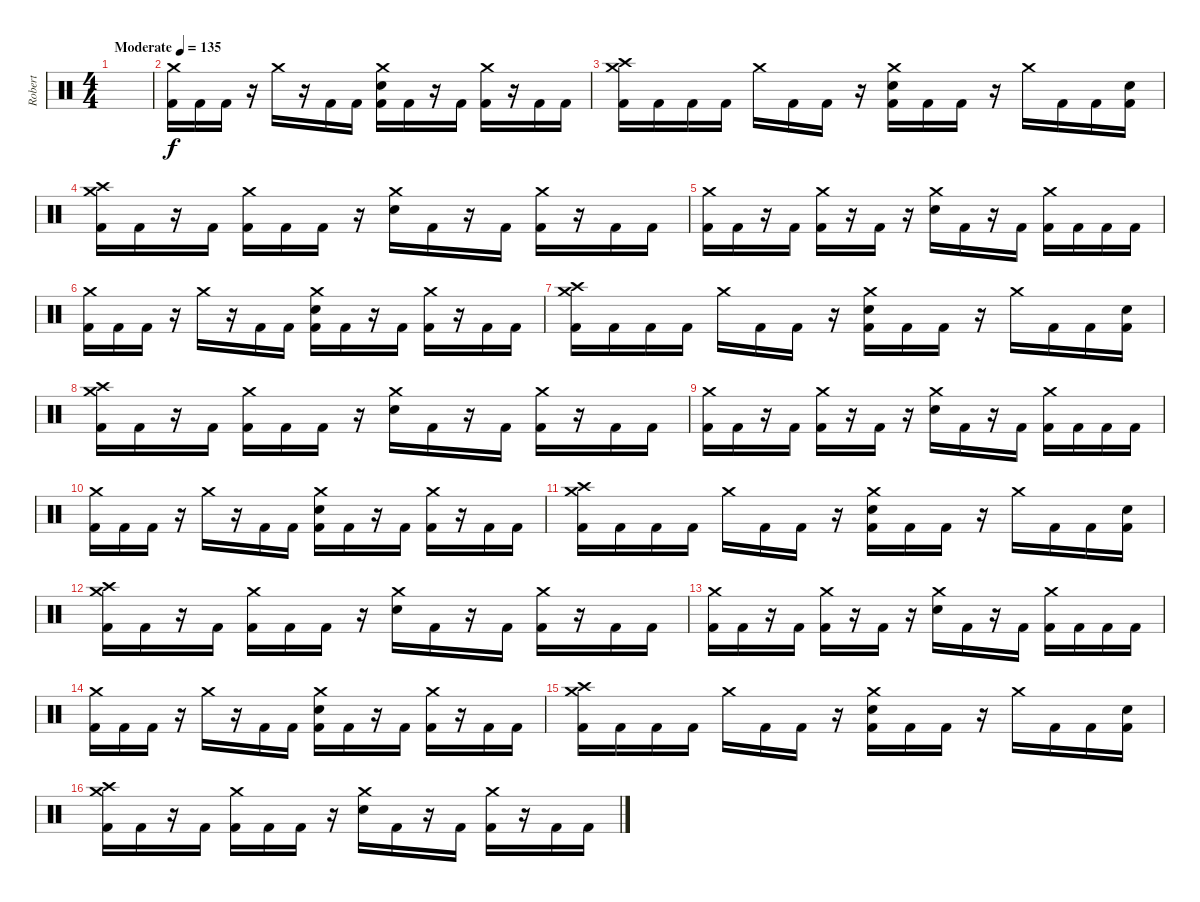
\track ("Robert" "Robert") {instrument percussion}
\staff {score}
\articulation defaults
\ts (4 4)
\tempo (135 "Moderate")
\clef neutral
\ks c
|
("Crash medium (hit)" "Kick (hit) 2").16{volume 7} "Kick (hit) 2".16 "Kick (hit) 2".16 r.16 "Crash medium (hit)".16 r.16 "Kick (hit) 2".16 "Kick (hit) 2".16 ("Crash medium (hit)" "Electric Snare (hit)" "Kick (hit) 2").16 "Kick (hit) 2".16 r.16 "Kick (hit) 2".16 ("Crash medium (hit)" "Kick (hit) 2").16 r.16 "Kick (hit) 2".16 "Kick (hit) 2".16 |
("Crash medium (hit)" "Crash high (hit)" "Kick (hit) 2").16 "Kick (hit) 2".16 "Kick (hit) 2".16 "Kick (hit) 2".16 "Crash medium (hit)".16 "Kick (hit) 2".16 "Kick (hit) 2".16 r.16 ("Crash medium (hit)" "Kick (hit) 2" "Electric Snare (hit)").16 "Kick (hit) 2".16 "Kick (hit) 2".16 r.16 "Crash medium (hit)".16 "Kick (hit) 2".16 "Kick (hit) 2".16 ("Kick (hit) 2" "Electric Snare (hit)").16 |
("Crash high (hit)" "Crash medium (hit)" "Kick (hit) 2").16 "Kick (hit) 2".16 r.16 "Kick (hit) 2".16 ("Crash medium (hit)" "Kick (hit) 2").16 "Kick (hit) 2".16 "Kick (hit) 2".16 r.16 ("Crash medium (hit)" "Electric Snare (hit)").16 "Kick (hit) 2".16 r.16 "Kick (hit) 2".16 ("Crash medium (hit)" "Kick (hit) 2").16 r.16 "Kick (hit) 2".16 "Kick (hit) 2".16 |
("Crash medium (hit)" "Kick (hit) 2").16 "Kick (hit) 2".16 r.16 "Kick (hit) 2".16 ("Crash medium (hit)" "Kick (hit) 2").16 r.16 "Kick (hit) 2".16 r.16 ("Crash medium (hit)" "Electric Snare (hit)").16 "Kick (hit) 2".16 r.16 "Kick (hit) 2".16 ("Crash medium (hit)" "Kick (hit) 2").16 "Kick (hit) 2".16 "Kick (hit) 2".16 "Kick (hit) 2".16 |
("Crash medium (hit)" "Kick (hit) 2").16{volume 16} "Kick (hit) 2".16 "Kick (hit) 2".16 r.16 "Crash medium (hit)".16 r.16 "Kick (hit) 2".16 "Kick (hit) 2".16 ("Crash medium (hit)" "Electric Snare (hit)" "Kick (hit) 2").16 "Kick (hit) 2".16 r.16 "Kick (hit) 2".16 ("Crash medium (hit)" "Kick (hit) 2").16 r.16 "Kick (hit) 2".16 "Kick (hit) 2".16 |
("Crash medium (hit)" "Crash high (hit)" "Kick (hit) 2").16 "Kick (hit) 2".16 "Kick (hit) 2".16 "Kick (hit) 2".16 "Crash medium (hit)".16 "Kick (hit) 2".16 "Kick (hit) 2".16 r.16 ("Crash medium (hit)" "Kick (hit) 2" "Electric Snare (hit)").16 "Kick (hit) 2".16 "Kick (hit) 2".16 r.16 "Crash medium (hit)".16 "Kick (hit) 2".16 "Kick (hit) 2".16 ("Kick (hit) 2" "Electric Snare (hit)").16 |
("Crash high (hit)" "Crash medium (hit)" "Kick (hit) 2").16 "Kick (hit) 2".16 r.16 "Kick (hit) 2".16 ("Crash medium (hit)" "Kick (hit) 2").16 "Kick (hit) 2".16 "Kick (hit) 2".16 r.16 ("Crash medium (hit)" "Electric Snare (hit)").16 "Kick (hit) 2".16 r.16 "Kick (hit) 2".16 ("Crash medium (hit)" "Kick (hit) 2").16 r.16 "Kick (hit) 2".16 "Kick (hit) 2".16 |
("Crash medium (hit)" "Kick (hit) 2").16 "Kick (hit) 2".16 r.16 "Kick (hit) 2".16 ("Crash medium (hit)" "Kick (hit) 2").16 r.16 "Kick (hit) 2".16 r.16 ("Crash medium (hit)" "Electric Snare (hit)").16 "Kick (hit) 2".16 r.16 "Kick (hit) 2".16 ("Crash medium (hit)" "Kick (hit) 2").16 "Kick (hit) 2".16 "Kick (hit) 2".16 "Kick (hit) 2".16 |
("Crash medium (hit)" "Kick (hit) 2").16 "Kick (hit) 2".16 "Kick (hit) 2".16 r.16 "Crash medium (hit)".16 r.16 "Kick (hit) 2".16 "Kick (hit) 2".16 ("Crash medium (hit)" "Electric Snare (hit)" "Kick (hit) 2").16 "Kick (hit) 2".16 r.16 "Kick (hit) 2".16 ("Crash medium (hit)" "Kick (hit) 2").16 r.16 "Kick (hit) 2".16 "Kick (hit) 2".16 |
("Crash medium (hit)" "Crash high (hit)" "Kick (hit) 2").16 "Kick (hit) 2".16 "Kick (hit) 2".16 "Kick (hit) 2".16 "Crash medium (hit)".16 "Kick (hit) 2".16 "Kick (hit) 2".16 r.16 ("Crash medium (hit)" "Kick (hit) 2" "Electric Snare (hit)").16 "Kick (hit) 2".16 "Kick (hit) 2".16 r.16 "Crash medium (hit)".16 "Kick (hit) 2".16 "Kick (hit) 2".16 ("Kick (hit) 2" "Electric Snare (hit)").16 |
("Crash high (hit)" "Crash medium (hit)" "Kick (hit) 2").16 "Kick (hit) 2".16 r.16 "Kick (hit) 2".16 ("Crash medium (hit)" "Kick (hit) 2").16 "Kick (hit) 2".16 "Kick (hit) 2".16 r.16 ("Crash medium (hit)" "Electric Snare (hit)").16 "Kick (hit) 2".16 r.16 "Kick (hit) 2".16 ("Crash medium (hit)" "Kick (hit) 2").16 r.16 "Kick (hit) 2".16 "Kick (hit) 2".16 |
("Crash medium (hit)" "Kick (hit) 2").16 "Kick (hit) 2".16 r.16 "Kick (hit) 2".16 ("Crash medium (hit)" "Kick (hit) 2").16 r.16 "Kick (hit) 2".16 r.16 ("Crash medium (hit)" "Electric Snare (hit)").16 "Kick (hit) 2".16 r.16 "Kick (hit) 2".16 ("Crash medium (hit)" "Kick (hit) 2").16 "Kick (hit) 2".16 "Kick (hit) 2".16 "Kick (hit) 2".16 |
("Crash medium (hit)" "Kick (hit) 2").16 "Kick (hit) 2".16 "Kick (hit) 2".16 r.16 "Crash medium (hit)".16 r.16 "Kick (hit) 2".16 "Kick (hit) 2".16 ("Crash medium (hit)" "Electric Snare (hit)" "Kick (hit) 2").16 "Kick (hit) 2".16 r.16 "Kick (hit) 2".16 ("Crash medium (hit)" "Kick (hit) 2").16 r.16 "Kick (hit) 2".16 "Kick (hit) 2".16 |
("Crash medium (hit)" "Crash high (hit)" "Kick (hit) 2").16 "Kick (hit) 2".16 "Kick (hit) 2".16 "Kick (hit) 2".16 "Crash medium (hit)".16 "Kick (hit) 2".16 "Kick (hit) 2".16 r.16 ("Crash medium (hit)" "Kick (hit) 2" "Electric Snare (hit)").16 "Kick (hit) 2".16 "Kick (hit) 2".16 r.16 "Crash medium (hit)".16 "Kick (hit) 2".16 "Kick (hit) 2".16 ("Kick (hit) 2" "Electric Snare (hit)").16 |
("Crash high (hit)" "Crash medium (hit)" "Kick (hit) 2").16 "Kick (hit) 2".16 r.16 "Kick (hit) 2".16 ("Crash medium (hit)" "Kick (hit) 2").16 "Kick (hit) 2".16 "Kick (hit) 2".16 r.16 ("Crash medium (hit)" "Electric Snare (hit)").16 "Kick (hit) 2".16 r.16 "Kick (hit) 2".16 ("Crash medium (hit)" "Kick (hit) 2").16 r.16 "Kick (hit) 2".16 "Kick (hit) 2".16
